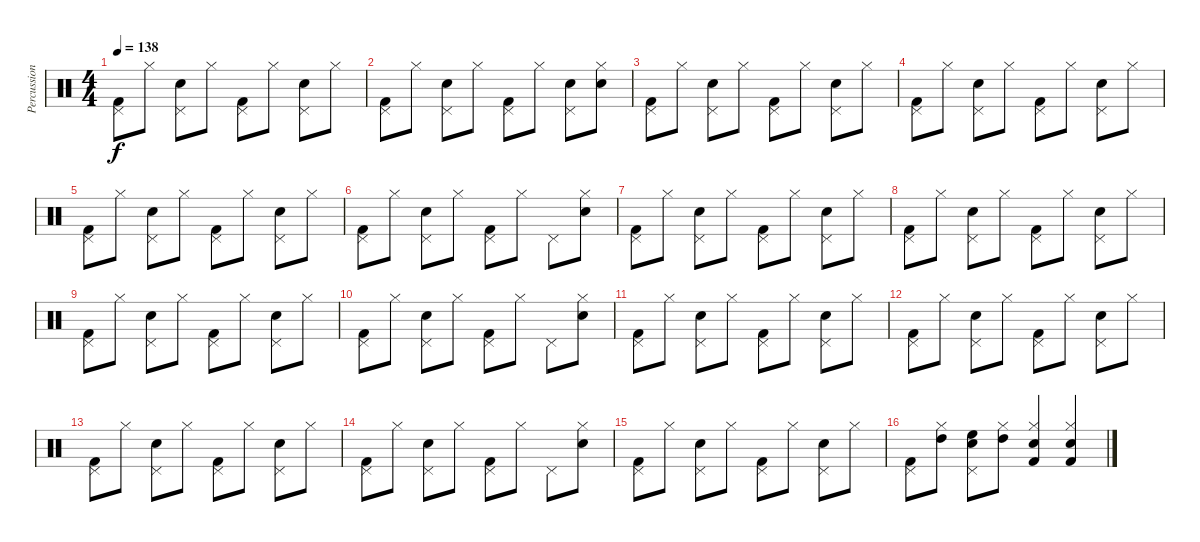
\track ("Percussions" "Percussion") {instrument percussion}
\staff {score}
\articulation defaults
\ts (4 4)
\tempo 138
\clef neutral
\ks c
("Pedal Hi-Hat (hit)" "Kick (hit) 2").8{dy f} "Hi-Hat (closed)".8 ("Pedal Hi-Hat (hit)" "Snare (hit) 2").8 "Hi-Hat (closed)".8 ("Pedal Hi-Hat (hit)" "Kick (hit) 2").8 "Hi-Hat (closed)".8 ("Pedal Hi-Hat (hit)" "Snare (hit) 2").8 "Hi-Hat (closed)".8 |
("Pedal Hi-Hat (hit)" "Kick (hit) 2").8 "Hi-Hat (closed)".8 ("Pedal Hi-Hat (hit)" "Snare (hit) 2").8 "Hi-Hat (closed)".8 ("Pedal Hi-Hat (hit)" "Kick (hit) 2").8 "Hi-Hat (closed)".8 ("Pedal Hi-Hat (hit)" "Snare (hit) 2").8 ("Hi-Hat (closed)" "Snare (hit) 2").8 |
("Pedal Hi-Hat (hit)" "Kick (hit) 2").8 "Hi-Hat (closed)".8 ("Pedal Hi-Hat (hit)" "Snare (hit) 2").8 "Hi-Hat (closed)".8 ("Pedal Hi-Hat (hit)" "Kick (hit) 2").8 "Hi-Hat (closed)".8 ("Pedal Hi-Hat (hit)" "Snare (hit) 2").8 "Hi-Hat (closed)".8 |
("Pedal Hi-Hat (hit)" "Kick (hit) 2").8 "Hi-Hat (closed)".8 ("Pedal Hi-Hat (hit)" "Snare (hit) 2").8 "Hi-Hat (closed)".8 ("Pedal Hi-Hat (hit)" "Kick (hit) 2").8 "Hi-Hat (closed)".8 ("Pedal Hi-Hat (hit)" "Snare (hit) 2").8 "Hi-Hat (closed)".8 |
("Pedal Hi-Hat (hit)" "Kick (hit) 2").8 "Hi-Hat (closed)".8 ("Pedal Hi-Hat (hit)" "Snare (hit) 2").8 "Hi-Hat (closed)".8 ("Pedal Hi-Hat (hit)" "Kick (hit) 2").8 "Hi-Hat (closed)".8 ("Pedal Hi-Hat (hit)" "Snare (hit) 2").8 "Hi-Hat (closed)".8 |
("Pedal Hi-Hat (hit)" "Kick (hit) 2").8 "Hi-Hat (closed)".8 ("Pedal Hi-Hat (hit)" "Snare (hit) 2").8 "Hi-Hat (closed)".8 ("Pedal Hi-Hat (hit)" "Kick (hit) 2").8 "Hi-Hat (closed)".8 "Pedal Hi-Hat (hit)".8 ("Hi-Hat (closed)" "Snare (hit) 2").8 |
("Pedal Hi-Hat (hit)" "Kick (hit) 2").8 "Hi-Hat (closed)".8 ("Pedal Hi-Hat (hit)" "Snare (hit) 2").8 "Hi-Hat (closed)".8 ("Pedal Hi-Hat (hit)" "Kick (hit) 2").8 "Hi-Hat (closed)".8 ("Pedal Hi-Hat (hit)" "Snare (hit) 2").8 "Hi-Hat (closed)".8 |
("Pedal Hi-Hat (hit)" "Kick (hit) 2").8 "Hi-Hat (closed)".8 ("Pedal Hi-Hat (hit)" "Snare (hit) 2").8 "Hi-Hat (closed)".8 ("Pedal Hi-Hat (hit)" "Kick (hit) 2").8 "Hi-Hat (closed)".8 ("Pedal Hi-Hat (hit)" "Snare (hit) 2").8 "Hi-Hat (closed)".8 |
("Pedal Hi-Hat (hit)" "Kick (hit) 2").8 "Hi-Hat (closed)".8 ("Pedal Hi-Hat (hit)" "Snare (hit) 2").8 "Hi-Hat (closed)".8 ("Pedal Hi-Hat (hit)" "Kick (hit) 2").8 "Hi-Hat (closed)".8 ("Pedal Hi-Hat (hit)" "Snare (hit) 2").8 "Hi-Hat (closed)".8 |
("Pedal Hi-Hat (hit)" "Kick (hit) 2").8 "Hi-Hat (closed)".8 ("Pedal Hi-Hat (hit)" "Snare (hit) 2").8 "Hi-Hat (closed)".8 ("Pedal Hi-Hat (hit)" "Kick (hit) 2").8 "Hi-Hat (closed)".8 "Pedal Hi-Hat (hit)".8 ("Hi-Hat (closed)" "Snare (hit) 2").8 |
("Pedal Hi-Hat (hit)" "Kick (hit) 2").8 "Hi-Hat (closed)".8 ("Pedal Hi-Hat (hit)" "Snare (hit) 2").8 "Hi-Hat (closed)".8 ("Pedal Hi-Hat (hit)" "Kick (hit) 2").8 "Hi-Hat (closed)".8 ("Pedal Hi-Hat (hit)" "Snare (hit) 2").8 "Hi-Hat (closed)".8 |
("Pedal Hi-Hat (hit)" "Kick (hit) 2").8 "Hi-Hat (closed)".8 ("Pedal Hi-Hat (hit)" "Snare (hit) 2").8 "Hi-Hat (closed)".8 ("Pedal Hi-Hat (hit)" "Kick (hit) 2").8 "Hi-Hat (closed)".8 ("Pedal Hi-Hat (hit)" "Snare (hit) 2").8 "Hi-Hat (closed)".8 |
("Pedal Hi-Hat (hit)" "Kick (hit) 2").8 "Hi-Hat (closed)".8 ("Pedal Hi-Hat (hit)" "Snare (hit) 2").8 "Hi-Hat (closed)".8 ("Pedal Hi-Hat (hit)" "Kick (hit) 2").8 "Hi-Hat (closed)".8 ("Pedal Hi-Hat (hit)" "Snare (hit) 2").8 "Hi-Hat (closed)".8 |
("Pedal Hi-Hat (hit)" "Kick (hit) 2").8 "Hi-Hat (closed)".8 ("Pedal Hi-Hat (hit)" "Snare (hit) 2").8 "Hi-Hat (closed)".8 ("Pedal Hi-Hat (hit)" "Kick (hit) 2").8 "Hi-Hat (closed)".8 "Pedal Hi-Hat (hit)".8 ("Hi-Hat (closed)" "Snare (hit) 2").8 |
("Pedal Hi-Hat (hit)" "Kick (hit) 2").8 "Hi-Hat (closed)".8 ("Pedal Hi-Hat (hit)" "Snare (hit) 2").8 "Hi-Hat (closed)".8 ("Pedal Hi-Hat (hit)" "Kick (hit) 2").8 "Hi-Hat (closed)".8 ("Pedal Hi-Hat (hit)" "Snare (hit) 2").8 "Hi-Hat (closed)".8 |
("Pedal Hi-Hat (hit)" "Kick (hit) 2").8 ("Hi-Hat (closed)" "High Tom (hit)").8 ("Pedal Hi-Hat (hit)" "High Floor Tom (hit)" "Snare (hit) 2").8 ("Hi-Hat (closed)" "High Tom (hit)").8 ("Hi-Hat (closed)" "Snare (hit) 2" "Kick (hit) 2").4 ("Hi-Hat (closed)" "Snare (hit) 2" "Kick (hit) 2").4
